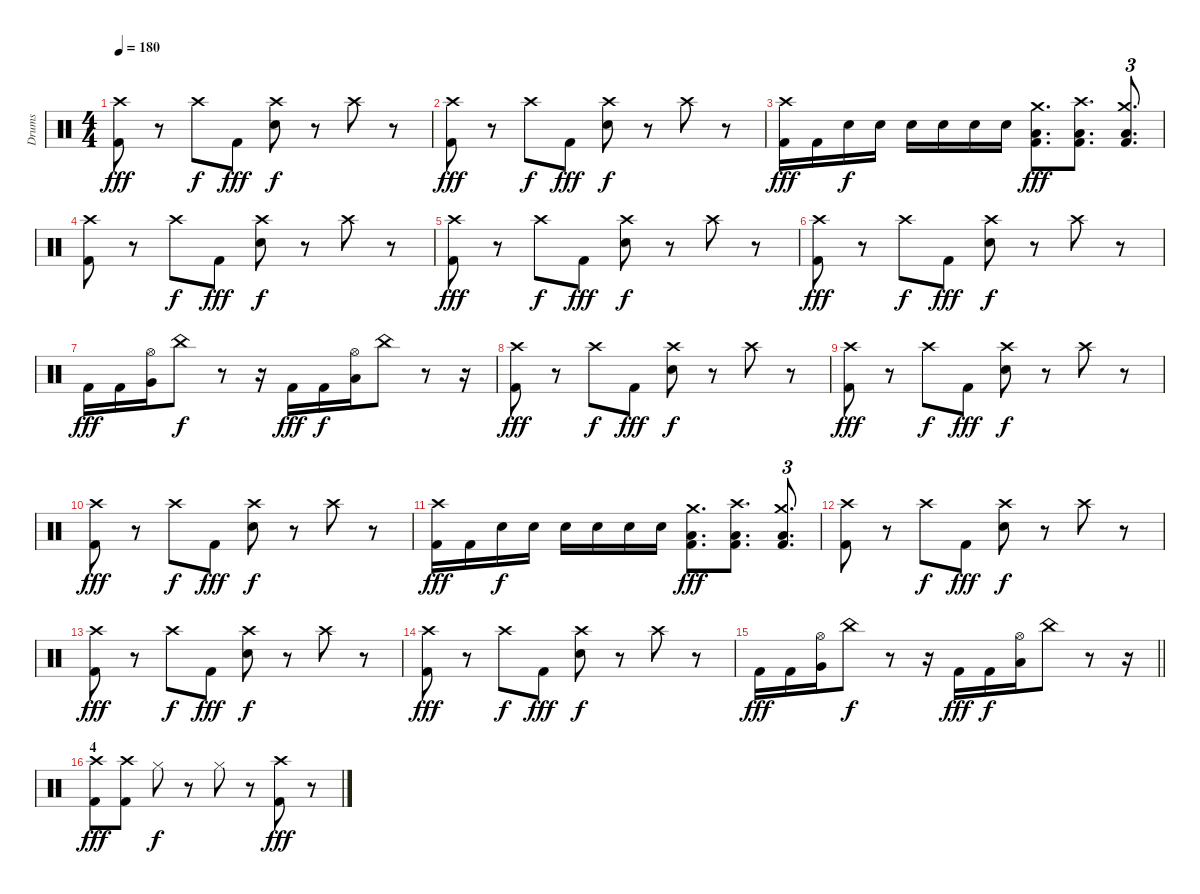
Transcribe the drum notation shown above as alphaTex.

\track ("Drums" "Drums") {instrument percussion}
\staff {score}
\articulation defaults
\ts (4 4)
\tempo 180
\clef neutral
\ks c
("Crash high (hit)" "Kick (hit) 2").8{dy fff} r.8 "Crash high (hit)".8{dy f} "Kick (hit) 2".8{dy fff} ("Crash high (hit)" "Electric Snare (hit)").8{dy f} r.8 "Crash high (hit)".8 r.8 |
("Crash high (hit)" "Kick (hit) 2").8{dy fff} r.8 "Crash high (hit)".8{dy f} "Kick (hit) 2".8{dy fff} ("Crash high (hit)" "Electric Snare (hit)").8{dy f} r.8 "Crash high (hit)".8 r.8 |
("Crash high (hit)" "Kick (hit) 2").16{dy fff} "Kick (hit) 2".16 "Electric Snare (hit)".16{dy f} "Electric Snare (hit)".16 "Electric Snare (hit)".16 "Electric Snare (hit)".16 "Electric Snare (hit)".16 "Electric Snare (hit)".16 ("Crash medium (hit)" "Low Floor Tom (hit)" "Kick (hit) 2").8{d dy fff} ("Crash high (hit)" "Low Floor Tom (hit)" "Kick (hit) 2").8{d} ("Crash medium (hit)" "Low Floor Tom (hit)" "Kick (hit) 2").8{d tu (3 2)} |
("Crash high (hit)" "Kick (hit) 2").8 r.8 "Crash high (hit)".8{dy f} "Kick (hit) 2".8{dy fff} ("Crash high (hit)" "Electric Snare (hit)").8{dy f} r.8 "Crash high (hit)".8 r.8 |
("Crash high (hit)" "Kick (hit) 2").8{dy fff} r.8 "Crash high (hit)".8{dy f} "Kick (hit) 2".8{dy fff} ("Crash high (hit)" "Electric Snare (hit)").8{dy f} r.8 "Crash high (hit)".8 r.8 |
("Crash high (hit)" "Kick (hit) 2").8{dy fff} r.8 "Crash high (hit)".8{dy f} "Kick (hit) 2".8{dy fff} ("Crash high (hit)" "Electric Snare (hit)").8{dy f} r.8 "Crash high (hit)".8 r.8 |
"Kick (hit) 2".16{dy fff} "Kick (hit) 2".16 ("Hi-Hat (open)" "Very Low Tom (hit)").16 "China (hit)".8{dy f} r.8 r.16 "Kick (hit) 2".16{dy fff} "Kick (hit) 2".16{dy f} ("Hi-Hat (open)" "Low Floor Tom (hit)").16 "China (hit)".8 r.8 r.16 |
("Crash high (hit)" "Kick (hit) 2").8{dy fff} r.8 "Crash high (hit)".8{dy f} "Kick (hit) 2".8{dy fff} ("Crash high (hit)" "Electric Snare (hit)").8{dy f} r.8 "Crash high (hit)".8 r.8 |
("Crash high (hit)" "Kick (hit) 2").8{dy fff} r.8 "Crash high (hit)".8{dy f} "Kick (hit) 2".8{dy fff} ("Crash high (hit)" "Electric Snare (hit)").8{dy f} r.8 "Crash high (hit)".8 r.8 |
("Crash high (hit)" "Kick (hit) 2").8{dy fff} r.8 "Crash high (hit)".8{dy f} "Kick (hit) 2".8{dy fff} ("Crash high (hit)" "Electric Snare (hit)").8{dy f} r.8 "Crash high (hit)".8 r.8 |
("Crash high (hit)" "Kick (hit) 2").16{dy fff} "Kick (hit) 2".16 "Electric Snare (hit)".16{dy f} "Electric Snare (hit)".16 "Electric Snare (hit)".16 "Electric Snare (hit)".16 "Electric Snare (hit)".16 "Electric Snare (hit)".16 ("Crash medium (hit)" "Low Floor Tom (hit)" "Kick (hit) 2").8{d dy fff} ("Crash high (hit)" "Low Floor Tom (hit)" "Kick (hit) 2").8{d} ("Crash medium (hit)" "Low Floor Tom (hit)" "Kick (hit) 2").8{d tu (3 2)} |
("Crash high (hit)" "Kick (hit) 2").8 r.8 "Crash high (hit)".8{dy f} "Kick (hit) 2".8{dy fff} ("Crash high (hit)" "Electric Snare (hit)").8{dy f} r.8 "Crash high (hit)".8 r.8 |
("Crash high (hit)" "Kick (hit) 2").8{dy fff} r.8 "Crash high (hit)".8{dy f} "Kick (hit) 2".8{dy fff} ("Crash high (hit)" "Electric Snare (hit)").8{dy f} r.8 "Crash high (hit)".8 r.8 |
("Crash high (hit)" "Kick (hit) 2").8{dy fff} r.8 "Crash high (hit)".8{dy f} "Kick (hit) 2".8{dy fff} ("Crash high (hit)" "Electric Snare (hit)").8{dy f} r.8 "Crash high (hit)".8 r.8 |
\barLineRight lightlight "Kick (hit) 2".16{dy fff} "Kick (hit) 2".16
("Hi-Hat (open)" "Very Low Tom (hit)").16 "China (hit)".8{dy f} r.8 r.16 "Kick (hit) 2".16{dy fff} "Kick (hit) 2".16{dy f} ("Hi-Hat (open)" "Low Floor Tom (hit)").16 "China (hit)".8 r.8 r.16 |
\section ("" "4")
("Crash high (hit)" "Kick (hit) 2").8{dy fff} ("Crash high (hit)" "Kick (hit) 2").8 "Hi-Hat (closed)".8{dy f} r.8 "Hi-Hat (closed)".8 r.8 ("Crash high (hit)" "Kick (hit) 2").8{dy fff} r.8
